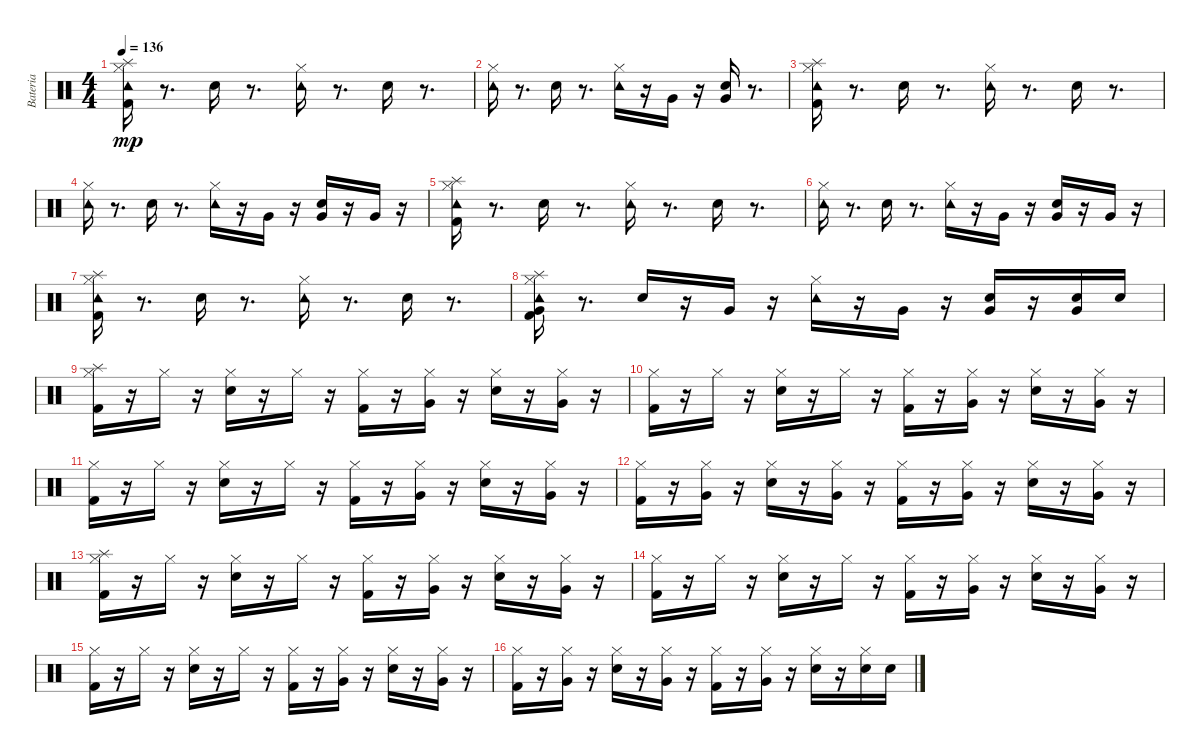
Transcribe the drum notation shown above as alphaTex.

\track ("Bateria" "Bateria") {instrument percussion}
\staff {score}
\articulation defaults
\ts (4 4)
\tempo 136
\clef neutral
\ks c
("Splash (hit)" "Kick (hit) 2" "Tambourine (hit)" "Hi-Hat (closed)").16{dy mp} r.8{d} "Snare (hit) 2".16 r.8{d} ("Hi-Hat (closed)" "Tambourine (hit)").16 r.8{d} "Snare (hit) 2".16 r.8{d} |
("Hi-Hat (closed)" "Tambourine (hit)").16 r.8{d} "Snare (hit) 2".16 r.8{d} ("Hi-Hat (closed)" "Tambourine (hit)").16 r.16 "Very Low Tom (hit)".16 r.16 ("Snare (hit) 2" "Very Low Tom (hit)").16 r.8{d} |
("Splash (hit)" "Tambourine (hit)" "Hi-Hat (closed)" "Kick (hit) 2").16 r.8{d} "Snare (hit) 2".16 r.8{d} ("Hi-Hat (closed)" "Tambourine (hit)").16 r.8{d} "Snare (hit) 2".16 r.8{d} |
("Hi-Hat (closed)" "Tambourine (hit)").16 r.8{d} "Snare (hit) 2".16 r.8{d} ("Hi-Hat (closed)" "Tambourine (hit)").16 r.16 "Very Low Tom (hit)".16 r.16 ("Snare (hit) 2" "Very Low Tom (hit)").16 r.16 "Very Low Tom (hit)".16 r.16 |
("Splash (hit)" "Kick (hit) 2" "Tambourine (hit)" "Hi-Hat (closed)").16 r.8{d} "Snare (hit) 2".16 r.8{d} ("Hi-Hat (closed)" "Tambourine (hit)").16 r.8{d} "Snare (hit) 2".16 r.8{d} |
("Hi-Hat (closed)" "Tambourine (hit)").16 r.8{d} "Snare (hit) 2".16 r.8{d} ("Hi-Hat (closed)" "Tambourine (hit)").16 r.16 "Very Low Tom (hit)".16 r.16 ("Snare (hit) 2" "Very Low Tom (hit)").16 r.16 "Very Low Tom (hit)".16 r.16 |
("Splash (hit)" "Tambourine (hit)" "Hi-Hat (closed)" "Kick (hit) 2").16 r.8{d} "Snare (hit) 2".16 r.8{d} ("Hi-Hat (closed)" "Tambourine (hit)").16 r.8{d} "Snare (hit) 2".16 r.8{d} |
("Hi-Hat (closed)" "Tambourine (hit)" "Splash (hit)" "Very Low Tom (hit)" "Kick (hit) 2").16 r.8{d} "Snare (hit) 2".16 r.16 "Very Low Tom (hit)".16 r.16 ("Hi-Hat (closed)" "Tambourine (hit)").16 r.16 "Very Low Tom (hit)".16 r.16 ("Snare (hit) 2" "Very Low Tom (hit)").16 r.16 ("Very Low Tom (hit)" "Snare (hit) 2").16 "Snare (hit) 2".16 |
("Kick (hit) 2" "Hi-Hat (closed)" "Splash (hit)").16 r.16 "Hi-Hat (closed)".16 r.16 ("Snare (hit) 2" "Hi-Hat (closed)").16 r.16 "Hi-Hat (closed)".16 r.16 ("Kick (hit) 2" "Hi-Hat (closed)").16 r.16 ("Hi-Hat (closed)" "Very Low Tom (hit)").16 r.16 ("Snare (hit) 2" "Hi-Hat (closed)").16 r.16 ("Hi-Hat (closed)" "Very Low Tom (hit)").16 r.16 |
("Kick (hit) 2" "Hi-Hat (closed)").16 r.16 "Hi-Hat (closed)".16 r.16 ("Snare (hit) 2" "Hi-Hat (closed)").16 r.16 "Hi-Hat (closed)".16 r.16 ("Kick (hit) 2" "Hi-Hat (closed)").16 r.16 ("Hi-Hat (closed)" "Very Low Tom (hit)").16 r.16 ("Snare (hit) 2" "Hi-Hat (closed)").16 r.16 ("Hi-Hat (closed)" "Very Low Tom (hit)").16 r.16 |
("Kick (hit) 2" "Hi-Hat (closed)").16 r.16 "Hi-Hat (closed)".16 r.16 ("Snare (hit) 2" "Hi-Hat (closed)").16 r.16 "Hi-Hat (closed)".16 r.16 ("Kick (hit) 2" "Hi-Hat (closed)").16 r.16 ("Hi-Hat (closed)" "Very Low Tom (hit)").16 r.16 ("Snare (hit) 2" "Hi-Hat (closed)").16 r.16 ("Hi-Hat (closed)" "Very Low Tom (hit)").16 r.16 |
("Kick (hit) 2" "Hi-Hat (closed)").16 r.16 ("Hi-Hat (closed)" "Very Low Tom (hit)").16 r.16 ("Snare (hit) 2" "Hi-Hat (closed)").16 r.16 ("Hi-Hat (closed)" "Very Low Tom (hit)").16 r.16 ("Kick (hit) 2" "Hi-Hat (closed)").16 r.16 ("Hi-Hat (closed)" "Very Low Tom (hit)").16 r.16 ("Snare (hit) 2" "Hi-Hat (closed)").16 r.16 ("Hi-Hat (closed)" "Very Low Tom (hit)").16 r.16 |
("Kick (hit) 2" "Hi-Hat (closed)" "Splash (hit)").16 r.16 "Hi-Hat (closed)".16 r.16 ("Snare (hit) 2" "Hi-Hat (closed)").16 r.16 "Hi-Hat (closed)".16 r.16 ("Kick (hit) 2" "Hi-Hat (closed)").16 r.16 ("Hi-Hat (closed)" "Very Low Tom (hit)").16 r.16 ("Snare (hit) 2" "Hi-Hat (closed)").16 r.16 ("Hi-Hat (closed)" "Very Low Tom (hit)").16 r.16 |
("Kick (hit) 2" "Hi-Hat (closed)").16 r.16 "Hi-Hat (closed)".16 r.16 ("Snare (hit) 2" "Hi-Hat (closed)").16 r.16 "Hi-Hat (closed)".16 r.16 ("Kick (hit) 2" "Hi-Hat (closed)").16 r.16 ("Hi-Hat (closed)" "Very Low Tom (hit)").16 r.16 ("Snare (hit) 2" "Hi-Hat (closed)").16 r.16 ("Hi-Hat (closed)" "Very Low Tom (hit)").16 r.16 |
("Kick (hit) 2" "Hi-Hat (closed)").16 r.16 "Hi-Hat (closed)".16 r.16 ("Snare (hit) 2" "Hi-Hat (closed)").16 r.16 "Hi-Hat (closed)".16 r.16 ("Kick (hit) 2" "Hi-Hat (closed)").16 r.16 ("Hi-Hat (closed)" "Very Low Tom (hit)").16 r.16 ("Snare (hit) 2" "Hi-Hat (closed)").16 r.16 ("Hi-Hat (closed)" "Very Low Tom (hit)").16 r.16 |
("Kick (hit) 2" "Hi-Hat (closed)").16 r.16 ("Hi-Hat (closed)" "Very Low Tom (hit)").16 r.16 ("Snare (hit) 2" "Hi-Hat (closed)").16 r.16 ("Hi-Hat (closed)" "Very Low Tom (hit)").16 r.16 ("Kick (hit) 2" "Hi-Hat (closed)").16 r.16 ("Hi-Hat (closed)" "Very Low Tom (hit)").16 r.16 ("Snare (hit) 2" "Hi-Hat (closed)").16 r.16 ("Snare (hit) 2" "Hi-Hat (closed)").16 "Snare (hit) 2".16
